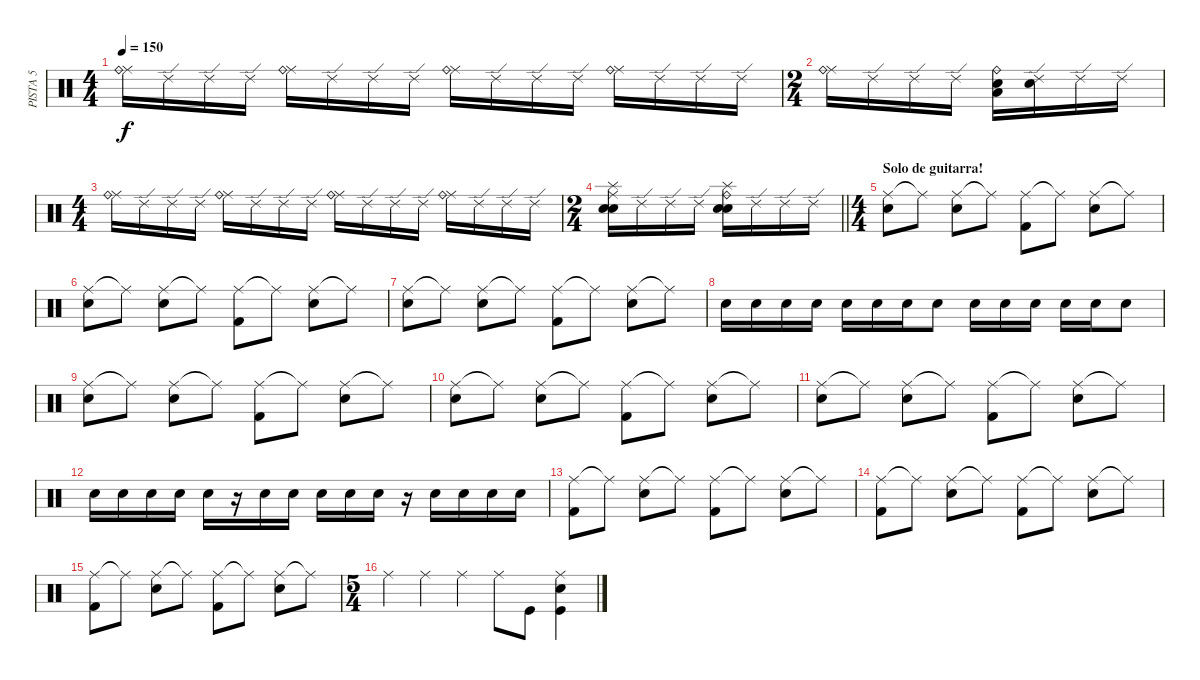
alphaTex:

\track ("PISTA 5" "PISTA 5") {instrument percussion}
\staff {score}
\articulation defaults
\ts (4 4)
\tempo 150
\clef neutral
\ks c
("Ride (middle)" "Ride (bell)").16{dy f} "Ride (edge) 2".16 "Ride (edge) 2".16 "Ride (edge) 2".16 ("Ride (middle)" "Ride (bell)").16 "Ride (edge) 2".16 "Ride (edge) 2".16 "Ride (edge) 2".16 ("Ride (middle)" "Ride (bell)").16 "Ride (edge) 2".16 "Ride (edge) 2".16 "Ride (edge) 2".16 ("Ride (middle)" "Ride (bell)").16 "Ride (edge) 2".16 "Ride (edge) 2".16 "Ride (edge) 2".16 |
\ts (2 4)
("Ride (middle)" "Ride (bell)").16 "Ride (edge) 2".16 "Ride (edge) 2".16 "Ride (edge) 2".16 ("Ride (bell)" "Low Floor Tom (hit)" "Snare (hit) 2").16 ("Ride (edge) 2" "Electric Snare (hit)").16 "Ride (edge) 2".16 "Ride (edge) 2".16 |
\ts (4 4)
("Ride (middle)" "Ride (bell)").16 "Ride (edge) 2".16 "Ride (edge) 2".16 "Ride (edge) 2".16 ("Ride (middle)" "Ride (bell)").16 "Ride (edge) 2".16 "Ride (edge) 2".16 "Ride (edge) 2".16 ("Ride (middle)" "Ride (bell)").16 "Ride (edge) 2".16 "Ride (edge) 2".16 "Ride (edge) 2".16 ("Ride (middle)" "Ride (bell)").16 "Ride (edge) 2".16 "Ride (edge) 2".16 "Ride (edge) 2".16 |
\ts (2 4)
\barLineRight lightlight
("Ride (middle)" "Electric Snare (hit)" "Snare (hit) 2" "Splash (hit)").16 "Ride (edge) 2".16 "Ride (edge) 2".16 "Ride (edge) 2".16 ("Ride (bell)" "Electric Snare (hit)" "Snare (hit) 2" "Splash (hit)").16 "Ride (edge) 2".16 "Ride (edge) 2".16 "Ride (edge) 2".16 |
\ts (4 4)
\section ("" "Solo de guitarra!")
("Ride (middle)" "Snare (hit)").8 "Ride (middle)"{t}.8 ("Ride (middle)" "Electric Snare (hit)").8 "Ride (middle)"{t}.8 ("Ride (middle)" "Kick (hit) 2").8 "Ride (middle)"{t}.8 ("Ride (middle)" "Electric Snare (hit)").8 "Ride (middle)"{t}.8 |
("Ride (middle)" "Snare (hit)").8 "Ride (middle)"{t}.8 ("Ride (middle)" "Electric Snare (hit)").8 "Ride (middle)"{t}.8 ("Ride (middle)" "Kick (hit) 2").8 "Ride (middle)"{t}.8 ("Ride (middle)" "Electric Snare (hit)").8 "Ride (middle)"{t}.8 |
("Ride (middle)" "Snare (hit)").8 "Ride (middle)"{t}.8 ("Ride (middle)" "Electric Snare (hit)").8 "Ride (middle)"{t}.8 ("Ride (middle)" "Kick (hit) 2").8 "Ride (middle)"{t}.8 ("Ride (middle)" "Electric Snare (hit)").8 "Ride (middle)"{t}.8 |
"Electric Snare (hit)".16 "Electric Snare (hit)".16 "Electric Snare (hit)".16 "Electric Snare (hit)".16 "Electric Snare (hit)".16 "Electric Snare (hit)".16 "Electric Snare (hit)".16 "Electric Snare (hit)".8 "Electric Snare (hit)".16 "Electric Snare (hit)".16 "Electric Snare (hit)".16 "Electric Snare (hit)".16 "Electric Snare (hit)".16 "Electric Snare (hit)".8 |
("Ride (middle)" "Snare (hit)").8 "Ride (middle)"{t}.8 ("Ride (middle)" "Electric Snare (hit)").8 "Ride (middle)"{t}.8 ("Ride (middle)" "Kick (hit) 2").8 "Ride (middle)"{t}.8 ("Ride (middle)" "Electric Snare (hit)").8 "Ride (middle)"{t}.8 |
("Ride (middle)" "Snare (hit)").8 "Ride (middle)"{t}.8 ("Ride (middle)" "Electric Snare (hit)").8 "Ride (middle)"{t}.8 ("Ride (middle)" "Kick (hit) 2").8 "Ride (middle)"{t}.8 ("Ride (middle)" "Electric Snare (hit)").8 "Ride (middle)"{t}.8 |
("Ride (middle)" "Snare (hit)").8 "Ride (middle)"{t}.8 ("Ride (middle)" "Electric Snare (hit)").8 "Ride (middle)"{t}.8 ("Ride (middle)" "Kick (hit) 2").8 "Ride (middle)"{t}.8 ("Ride (middle)" "Electric Snare (hit)").8 "Ride (middle)"{t}.8 |
"Electric Snare (hit)".16 "Electric Snare (hit)".16 "Electric Snare (hit)".16 "Electric Snare (hit)".16 "Electric Snare (hit)".16 r.16 "Electric Snare (hit)".16 "Electric Snare (hit)".16 "Electric Snare (hit)".16 "Electric Snare (hit)".16 "Electric Snare (hit)".16 r.16 "Electric Snare (hit)".16 "Electric Snare (hit)".16 "Electric Snare (hit)".16 "Electric Snare (hit)".16 |
("Ride (middle)" "Kick (hit) 2").8 "Ride (middle)"{t}.8 ("Ride (middle)" "Electric Snare (hit)").8 "Ride (middle)"{t}.8 ("Ride (middle)" "Kick (hit) 2").8 "Ride (middle)"{t}.8 ("Ride (middle)" "Electric Snare (hit)").8 "Ride (middle)"{t}.8 |
("Ride (middle)" "Kick (hit) 2").8 "Ride (middle)"{t}.8 ("Ride (middle)" "Electric Snare (hit)").8 "Ride (middle)"{t}.8 ("Ride (middle)" "Kick (hit) 2").8 "Ride (middle)"{t}.8 ("Ride (middle)" "Electric Snare (hit)").8 "Ride (middle)"{t}.8 |
("Ride (middle)" "Kick (hit) 2").8 "Ride (middle)"{t}.8 ("Ride (middle)" "Electric Snare (hit)").8 "Ride (middle)"{t}.8 ("Ride (middle)" "Kick (hit) 2").8 "Ride (middle)"{t}.8 ("Ride (middle)" "Electric Snare (hit)").8 "Ride (middle)"{t}.8 |
\ts (5 4)
"Ride (middle)".4 "Ride (middle)".4 "Ride (middle)".4 "Ride (middle)".8 "Kick (hit)".8 ("Ride (middle)" "Electric Snare (hit)" "Kick (hit)").4
